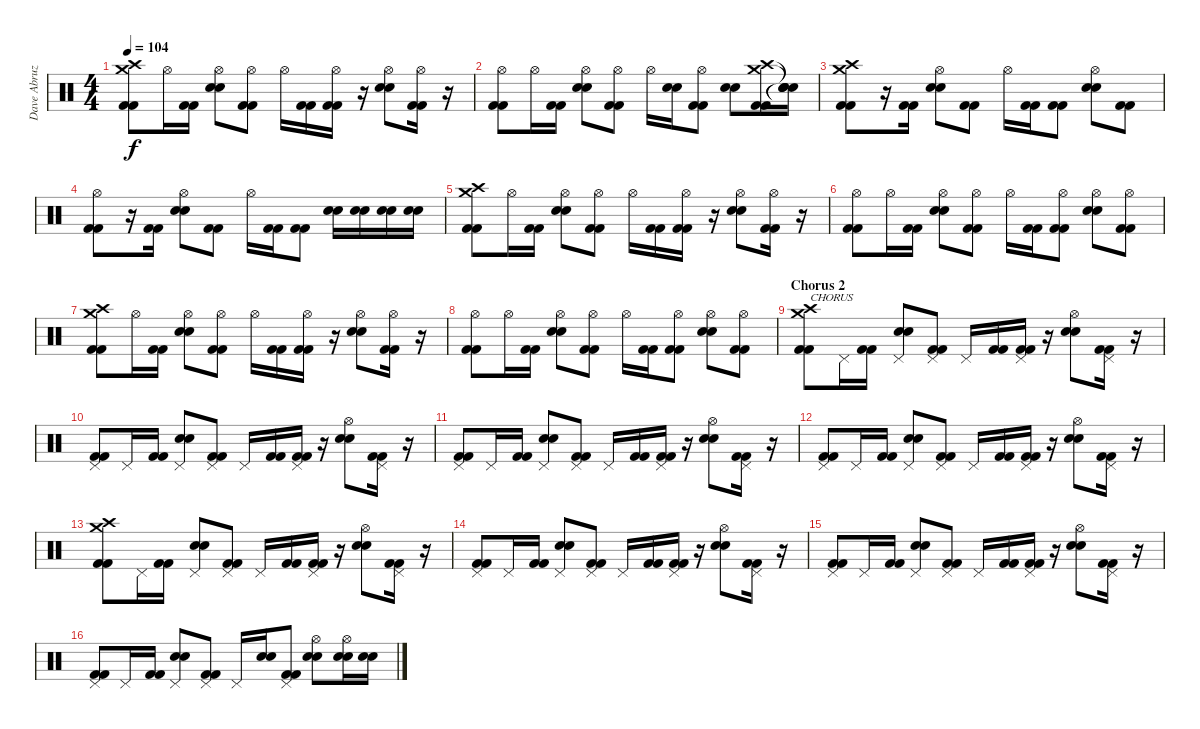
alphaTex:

\track ("Dave Abruzzese" "Dave Abruz") {instrument percussion}
\staff {score}
\articulation defaults
\ts (4 4)
\tempo 104
\clef neutral
\ks c
("Crash medium (hit)" "Kick (hit) 2" "Kick (hit) 2" "Crash high (hit)").8{dy f} "Hi-Hat (open)".16 ("Kick (hit) 2" "Kick (hit) 2").16 ("Electric Snare (hit)" "Electric Snare (hit)" "Hi-Hat (open)").8 ("Kick (hit) 2" "Kick (hit) 2" "Hi-Hat (open)").8 "Hi-Hat (open)".16 ("Kick (hit) 2" "Kick (hit) 2").16 ("Kick (hit) 2" "Kick (hit) 2" "Hi-Hat (open)").16 r.16 ("Electric Snare (hit)" "Electric Snare (hit)" "Hi-Hat (open)").8 ("Kick (hit) 2" "Kick (hit) 2" "Hi-Hat (open)").16 r.16 |
("Kick (hit) 2" "Kick (hit) 2" "Hi-Hat (open)").8 "Hi-Hat (open)".16 ("Kick (hit) 2" "Kick (hit) 2").16 ("Electric Snare (hit)" "Electric Snare (hit)" "Hi-Hat (open)").8 ("Kick (hit) 2" "Kick (hit) 2" "Hi-Hat (open)").8 "Hi-Hat (open)".16 ("Electric Snare (hit)" "Electric Snare (hit)").16 ("Kick (hit) 2" "Kick (hit) 2" "Hi-Hat (open)").8 ("Electric Snare (hit)" "Electric Snare (hit)").8 ("Crash medium (hit)" "Kick (hit) 2" "Kick (hit) 2" "Crash high (hit)").16 ("Snare (hit)"{t} "Snare (hit)"{t} "Snare (hit)"{t} "Snare (hit)"{t}).16 |
("Crash medium (hit)" "Kick (hit) 2" "Kick (hit) 2" "Crash high (hit)").8 r.16 ("Kick (hit) 2" "Kick (hit) 2").16 ("Electric Snare (hit)" "Electric Snare (hit)" "Hi-Hat (open)").8 ("Kick (hit) 2" "Kick (hit) 2").8 "Hi-Hat (open)".16 ("Kick (hit) 2" "Kick (hit) 2").16 ("Kick (hit) 2" "Kick (hit) 2").8 ("Electric Snare (hit)" "Electric Snare (hit)" "Hi-Hat (open)").8 ("Kick (hit) 2" "Kick (hit) 2").8 |
("Kick (hit) 2" "Kick (hit) 2" "Hi-Hat (open)").8 r.16 ("Kick (hit) 2" "Kick (hit) 2").16 ("Electric Snare (hit)" "Electric Snare (hit)" "Hi-Hat (open)").8 ("Kick (hit) 2" "Kick (hit) 2").8 "Hi-Hat (open)".16 ("Kick (hit) 2" "Kick (hit) 2").16 ("Kick (hit) 2" "Kick (hit) 2").8 ("Electric Snare (hit)" "Electric Snare (hit)").16 ("Electric Snare (hit)" "Electric Snare (hit)").16 ("Electric Snare (hit)" "Electric Snare (hit)").16 ("Electric Snare (hit)" "Electric Snare (hit)").16 |
("Crash medium (hit)" "Kick (hit) 2" "Kick (hit) 2" "Crash high (hit)").8 "Hi-Hat (open)".16 ("Kick (hit) 2" "Kick (hit) 2").16 ("Electric Snare (hit)" "Electric Snare (hit)" "Hi-Hat (open)").8 ("Kick (hit) 2" "Kick (hit) 2" "Hi-Hat (open)").8 "Hi-Hat (open)".16 ("Kick (hit) 2" "Kick (hit) 2").16 ("Kick (hit) 2" "Kick (hit) 2" "Hi-Hat (open)").16 r.16 ("Electric Snare (hit)" "Electric Snare (hit)" "Hi-Hat (open)").8 ("Kick (hit) 2" "Kick (hit) 2" "Hi-Hat (open)").16 r.16 |
("Kick (hit) 2" "Kick (hit) 2" "Hi-Hat (open)").8 "Hi-Hat (open)".16 ("Kick (hit) 2" "Kick (hit) 2").16 ("Electric Snare (hit)" "Electric Snare (hit)" "Hi-Hat (open)").8 ("Kick (hit) 2" "Kick (hit) 2" "Hi-Hat (open)").8 "Hi-Hat (open)".16 ("Kick (hit) 2" "Kick (hit) 2").16 ("Kick (hit) 2" "Kick (hit) 2" "Hi-Hat (open)").8 ("Electric Snare (hit)" "Electric Snare (hit)" "Hi-Hat (open)").8 ("Kick (hit) 2" "Kick (hit) 2" "Hi-Hat (open)").8 |
("Crash medium (hit)" "Kick (hit) 2" "Kick (hit) 2" "Crash high (hit)").8 "Hi-Hat (open)".16 ("Kick (hit) 2" "Kick (hit) 2").16 ("Electric Snare (hit)" "Electric Snare (hit)" "Hi-Hat (open)").8 ("Kick (hit) 2" "Kick (hit) 2" "Hi-Hat (open)").8 "Hi-Hat (open)".16 ("Kick (hit) 2" "Kick (hit) 2").16 ("Kick (hit) 2" "Kick (hit) 2" "Hi-Hat (open)").16 r.16 ("Electric Snare (hit)" "Electric Snare (hit)" "Hi-Hat (open)").8 ("Kick (hit) 2" "Kick (hit) 2" "Hi-Hat (open)").16 r.16 |
("Kick (hit) 2" "Kick (hit) 2" "Hi-Hat (open)").8 "Hi-Hat (open)".16 ("Kick (hit) 2" "Kick (hit) 2").16 ("Electric Snare (hit)" "Electric Snare (hit)" "Hi-Hat (open)").8 ("Kick (hit) 2" "Kick (hit) 2" "Hi-Hat (open)").8 "Hi-Hat (open)".16 ("Kick (hit) 2" "Kick (hit) 2").16 ("Kick (hit) 2" "Kick (hit) 2" "Hi-Hat (open)").8 ("Electric Snare (hit)" "Electric Snare (hit)" "Hi-Hat (open)").8 ("Kick (hit) 2" "Kick (hit) 2" "Hi-Hat (open)").8 |
\section ("" "Chorus 2")
("Crash medium (hit)" "Kick (hit) 2" "Kick (hit) 2" "Crash high (hit)").8{txt "CHORUS"} "Pedal Hi-Hat (hit)".16 ("Kick (hit) 2" "Kick (hit) 2").16 ("Electric Snare (hit)" "Electric Snare (hit)" "Pedal Hi-Hat (hit)").8 ("Kick (hit) 2" "Kick (hit) 2" "Pedal Hi-Hat (hit)").8 "Pedal Hi-Hat (hit)".16 ("Kick (hit) 2" "Kick (hit) 2").16 ("Kick (hit) 2" "Kick (hit) 2" "Pedal Hi-Hat (hit)").16 r.16 ("Electric Snare (hit)" "Electric Snare (hit)" "Hi-Hat (open)").8 ("Kick (hit) 2" "Kick (hit) 2" "Pedal Hi-Hat (hit)").16 r.16 |
("Kick (hit) 2" "Kick (hit) 2" "Pedal Hi-Hat (hit)").8 "Pedal Hi-Hat (hit)".16 ("Kick (hit) 2" "Kick (hit) 2").16 ("Electric Snare (hit)" "Electric Snare (hit)" "Pedal Hi-Hat (hit)").8 ("Kick (hit) 2" "Kick (hit) 2" "Pedal Hi-Hat (hit)").8 "Pedal Hi-Hat (hit)".16 ("Kick (hit) 2" "Kick (hit) 2").16 ("Kick (hit) 2" "Kick (hit) 2" "Pedal Hi-Hat (hit)").16 r.16 ("Electric Snare (hit)" "Electric Snare (hit)" "Hi-Hat (open)").8 ("Kick (hit) 2" "Kick (hit) 2" "Pedal Hi-Hat (hit)").16 r.16 |
("Kick (hit) 2" "Kick (hit) 2" "Pedal Hi-Hat (hit)").8 "Pedal Hi-Hat (hit)".16 ("Kick (hit) 2" "Kick (hit) 2").16 ("Electric Snare (hit)" "Electric Snare (hit)" "Pedal Hi-Hat (hit)").8 ("Kick (hit) 2" "Kick (hit) 2" "Pedal Hi-Hat (hit)").8 "Pedal Hi-Hat (hit)".16 ("Kick (hit) 2" "Kick (hit) 2").16 ("Kick (hit) 2" "Kick (hit) 2" "Pedal Hi-Hat (hit)").16 r.16 ("Electric Snare (hit)" "Electric Snare (hit)" "Hi-Hat (open)").8 ("Kick (hit) 2" "Kick (hit) 2" "Pedal Hi-Hat (hit)").16 r.16 |
("Kick (hit) 2" "Kick (hit) 2" "Pedal Hi-Hat (hit)").8 "Pedal Hi-Hat (hit)".16 ("Kick (hit) 2" "Kick (hit) 2").16 ("Electric Snare (hit)" "Electric Snare (hit)" "Pedal Hi-Hat (hit)").8 ("Kick (hit) 2" "Kick (hit) 2" "Pedal Hi-Hat (hit)").8 "Pedal Hi-Hat (hit)".16 ("Kick (hit) 2" "Kick (hit) 2").16 ("Kick (hit) 2" "Kick (hit) 2" "Pedal Hi-Hat (hit)").16 r.16 ("Electric Snare (hit)" "Electric Snare (hit)" "Hi-Hat (open)").8 ("Kick (hit) 2" "Kick (hit) 2" "Pedal Hi-Hat (hit)").16 r.16 |
("Crash medium (hit)" "Kick (hit) 2" "Kick (hit) 2" "Crash high (hit)").8 "Pedal Hi-Hat (hit)".16 ("Kick (hit) 2" "Kick (hit) 2").16 ("Electric Snare (hit)" "Electric Snare (hit)" "Pedal Hi-Hat (hit)").8 ("Kick (hit) 2" "Kick (hit) 2" "Pedal Hi-Hat (hit)").8 "Pedal Hi-Hat (hit)".16 ("Kick (hit) 2" "Kick (hit) 2").16 ("Kick (hit) 2" "Kick (hit) 2" "Pedal Hi-Hat (hit)").16 r.16 ("Electric Snare (hit)" "Electric Snare (hit)" "Hi-Hat (open)").8 ("Kick (hit) 2" "Kick (hit) 2" "Pedal Hi-Hat (hit)").16 r.16 |
("Kick (hit) 2" "Kick (hit) 2" "Pedal Hi-Hat (hit)").8 "Pedal Hi-Hat (hit)".16 ("Kick (hit) 2" "Kick (hit) 2").16 ("Electric Snare (hit)" "Electric Snare (hit)" "Pedal Hi-Hat (hit)").8 ("Kick (hit) 2" "Kick (hit) 2" "Pedal Hi-Hat (hit)").8 "Pedal Hi-Hat (hit)".16 ("Kick (hit) 2" "Kick (hit) 2").16 ("Kick (hit) 2" "Kick (hit) 2" "Pedal Hi-Hat (hit)").16 r.16 ("Electric Snare (hit)" "Electric Snare (hit)" "Hi-Hat (open)").8 ("Kick (hit) 2" "Kick (hit) 2" "Pedal Hi-Hat (hit)").16 r.16 |
("Kick (hit) 2" "Kick (hit) 2" "Pedal Hi-Hat (hit)").8 "Pedal Hi-Hat (hit)".16 ("Kick (hit) 2" "Kick (hit) 2").16 ("Electric Snare (hit)" "Electric Snare (hit)" "Pedal Hi-Hat (hit)").8 ("Kick (hit) 2" "Kick (hit) 2" "Pedal Hi-Hat (hit)").8 "Pedal Hi-Hat (hit)".16 ("Kick (hit) 2" "Kick (hit) 2").16 ("Kick (hit) 2" "Kick (hit) 2" "Pedal Hi-Hat (hit)").16 r.16 ("Electric Snare (hit)" "Electric Snare (hit)" "Hi-Hat (open)").8 ("Kick (hit) 2" "Kick (hit) 2" "Pedal Hi-Hat (hit)").16 r.16 |
("Kick (hit) 2" "Kick (hit) 2" "Pedal Hi-Hat (hit)").8 "Pedal Hi-Hat (hit)".16 ("Kick (hit) 2" "Kick (hit) 2").16 ("Electric Snare (hit)" "Electric Snare (hit)" "Pedal Hi-Hat (hit)").8 ("Kick (hit) 2" "Kick (hit) 2" "Pedal Hi-Hat (hit)").8 "Pedal Hi-Hat (hit)".16 ("Electric Snare (hit)" "Electric Snare (hit)").16 ("Kick (hit) 2" "Kick (hit) 2" "Pedal Hi-Hat (hit)").8 ("Electric Snare (hit)" "Electric Snare (hit)" "Hi-Hat (open)").8 ("Electric Snare (hit)" "Electric Snare (hit)" "Hi-Hat (open)").16 ("Electric Snare (hit)" "Electric Snare (hit)").16
